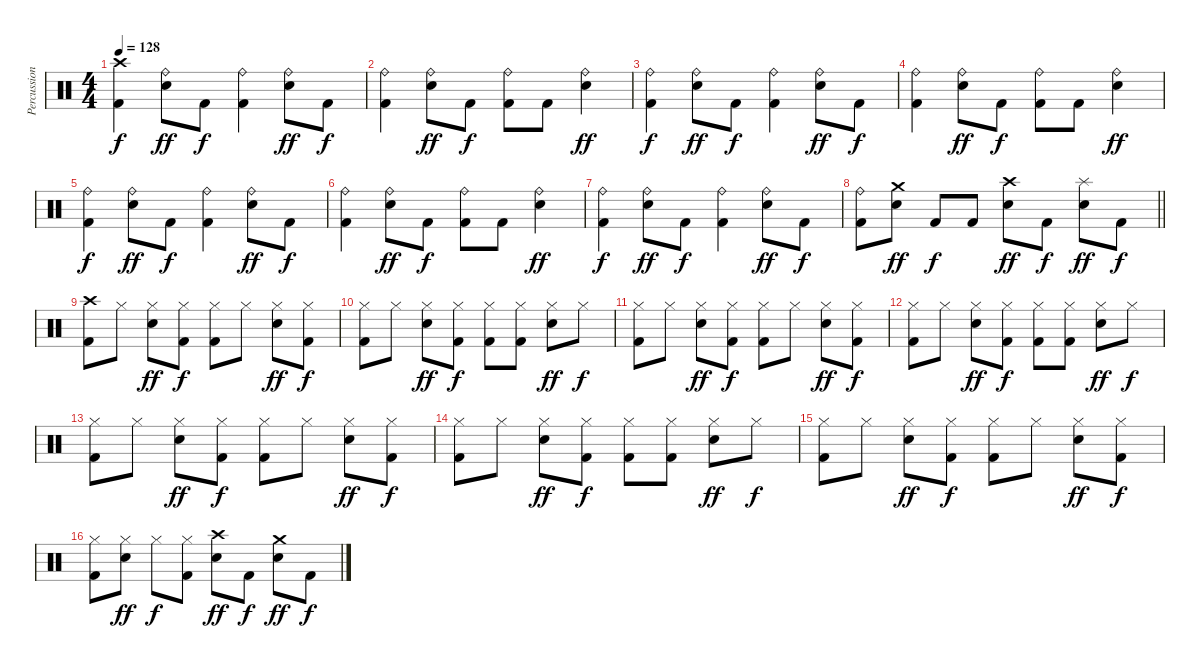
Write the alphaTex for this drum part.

\track ("Percussion" "Percussion") {instrument percussion}
\staff {score}
\articulation defaults
\ts (4 4)
\tempo 128
\clef neutral
\ks c
("Crash high (hit)" "Kick (hit) 2").4{dy f} ("Ride (bell)" "Snare (hit) 2").8{dy ff} "Kick (hit) 2".8{dy f} ("Ride (bell)" "Kick (hit) 2").4 ("Ride (bell)" "Snare (hit) 2").8{dy ff} "Kick (hit) 2".8{dy f} |
("Ride (bell)" "Kick (hit) 2").4 ("Ride (bell)" "Snare (hit) 2").8{dy ff} "Kick (hit) 2".8{dy f} ("Ride (bell)" "Kick (hit) 2").8 "Kick (hit) 2".8 ("Ride (bell)" "Snare (hit) 2").4{dy ff} |
("Ride (bell)" "Kick (hit) 2").4{dy f} ("Ride (bell)" "Snare (hit) 2").8{dy ff} "Kick (hit) 2".8{dy f} ("Ride (bell)" "Kick (hit) 2").4 ("Ride (bell)" "Snare (hit) 2").8{dy ff} "Kick (hit) 2".8{dy f} |
("Ride (bell)" "Kick (hit) 2").4 ("Ride (bell)" "Snare (hit) 2").8{dy ff} "Kick (hit) 2".8{dy f} ("Ride (bell)" "Kick (hit) 2").8 "Kick (hit) 2".8 ("Ride (bell)" "Snare (hit) 2").4{dy ff} |
("Ride (bell)" "Kick (hit) 2").4{dy f} ("Ride (bell)" "Snare (hit) 2").8{dy ff} "Kick (hit) 2".8{dy f} ("Ride (bell)" "Kick (hit) 2").4 ("Ride (bell)" "Snare (hit) 2").8{dy ff} "Kick (hit) 2".8{dy f} |
("Ride (bell)" "Kick (hit) 2").4 ("Ride (bell)" "Snare (hit) 2").8{dy ff} "Kick (hit) 2".8{dy f} ("Ride (bell)" "Kick (hit) 2").8 "Kick (hit) 2".8 ("Ride (bell)" "Snare (hit) 2").4{dy ff} |
("Ride (bell)" "Kick (hit) 2").4{dy f} ("Ride (bell)" "Snare (hit) 2").8{dy ff} "Kick (hit) 2".8{dy f} ("Ride (bell)" "Kick (hit) 2").4 ("Ride (bell)" "Snare (hit) 2").8{dy ff} "Kick (hit) 2".8{dy f} |
\barLineRight lightlight
("Ride (bell)" "Kick (hit) 2").8 ("Crash medium (hit)" "Snare (hit) 2").8{dy ff} "Kick (hit) 2".8{dy f} "Kick (hit) 2".8 ("Crash high (hit)" "Snare (hit) 2").8{dy ff} "Kick (hit) 2".8{dy f} ("Splash (hit)" "Snare (hit) 2").8{dy ff} "Kick (hit) 2".8{dy f} |
("Crash high (hit)" "Kick (hit) 2").8 "Hi-Hat (closed)".8 ("Hi-Hat (closed)" "Snare (hit) 2").8{dy ff} ("Hi-Hat (closed)" "Kick (hit) 2").8{dy f} ("Hi-Hat (closed)" "Kick (hit) 2").8 "Hi-Hat (closed)".8 ("Hi-Hat (closed)" "Snare (hit) 2").8{dy ff} ("Hi-Hat (closed)" "Kick (hit) 2").8{dy f} |
("Hi-Hat (closed)" "Kick (hit) 2").8 "Hi-Hat (closed)".8 ("Hi-Hat (closed)" "Snare (hit) 2").8{dy ff} ("Hi-Hat (closed)" "Kick (hit) 2").8{dy f} ("Hi-Hat (closed)" "Kick (hit) 2").8 ("Hi-Hat (closed)" "Kick (hit) 2").8 ("Hi-Hat (closed)" "Snare (hit) 2").8{dy ff} "Hi-Hat (closed)".8{dy f} |
("Hi-Hat (closed)" "Kick (hit) 2").8 "Hi-Hat (closed)".8 ("Hi-Hat (closed)" "Snare (hit) 2").8{dy ff} ("Hi-Hat (closed)" "Kick (hit) 2").8{dy f} ("Hi-Hat (closed)" "Kick (hit) 2").8 "Hi-Hat (closed)".8 ("Hi-Hat (closed)" "Snare (hit) 2").8{dy ff} ("Hi-Hat (closed)" "Kick (hit) 2").8{dy f} |
("Hi-Hat (closed)" "Kick (hit) 2").8 "Hi-Hat (closed)".8 ("Hi-Hat (closed)" "Snare (hit) 2").8{dy ff} ("Hi-Hat (closed)" "Kick (hit) 2").8{dy f} ("Hi-Hat (closed)" "Kick (hit) 2").8 ("Hi-Hat (closed)" "Kick (hit) 2").8 ("Hi-Hat (closed)" "Snare (hit) 2").8{dy ff} "Hi-Hat (closed)".8{dy f} |
("Hi-Hat (closed)" "Kick (hit) 2").8 "Hi-Hat (closed)".8 ("Hi-Hat (closed)" "Snare (hit) 2").8{dy ff} ("Hi-Hat (closed)" "Kick (hit) 2").8{dy f} ("Hi-Hat (closed)" "Kick (hit) 2").8 "Hi-Hat (closed)".8 ("Hi-Hat (closed)" "Snare (hit) 2").8{dy ff} ("Hi-Hat (closed)" "Kick (hit) 2").8{dy f} |
("Hi-Hat (closed)" "Kick (hit) 2").8 "Hi-Hat (closed)".8 ("Hi-Hat (closed)" "Snare (hit) 2").8{dy ff} ("Hi-Hat (closed)" "Kick (hit) 2").8{dy f} ("Hi-Hat (closed)" "Kick (hit) 2").8 ("Hi-Hat (closed)" "Kick (hit) 2").8 ("Hi-Hat (closed)" "Snare (hit) 2").8{dy ff} "Hi-Hat (closed)".8{dy f} |
("Hi-Hat (closed)" "Kick (hit) 2").8 "Hi-Hat (closed)".8 ("Hi-Hat (closed)" "Snare (hit) 2").8{dy ff} ("Hi-Hat (closed)" "Kick (hit) 2").8{dy f} ("Hi-Hat (closed)" "Kick (hit) 2").8 "Hi-Hat (closed)".8 ("Hi-Hat (closed)" "Snare (hit) 2").8{dy ff} ("Hi-Hat (closed)" "Kick (hit) 2").8{dy f} |
("Hi-Hat (closed)" "Kick (hit) 2").8 ("Hi-Hat (closed)" "Snare (hit) 2").8{dy ff} "Hi-Hat (closed)".8{dy f} ("Hi-Hat (closed)" "Kick (hit) 2").8 ("Crash high (hit)" "Snare (hit) 2").8{dy ff} "Kick (hit) 2".8{dy f} ("Crash medium (hit)" "Snare (hit) 2").8{dy ff} "Kick (hit) 2".8{dy f}
